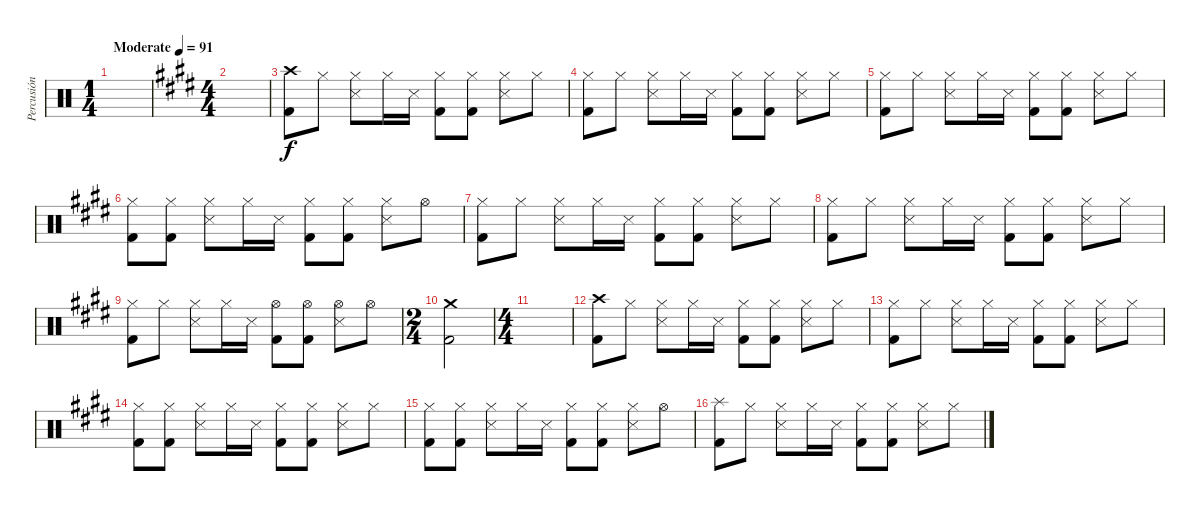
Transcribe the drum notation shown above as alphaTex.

\track ("Percusión" "Percusión") {instrument percussion}
\staff {score}
\articulation defaults
\ts (1 4)
\tempo (91 "Moderate")
\clef neutral
\ks c
|
\ts (4 4)
\ks e
|
\ks c#minor
("Crash high (hit)" "Kick (hit) 2").8 "Hi-Hat (closed)".8 ("Hi-Hat (closed)" "Metronome (hit)").8 "Hi-Hat (closed)".16 "Metronome (hit)".16 ("Hi-Hat (closed)" "Kick (hit) 2").8 ("Hi-Hat (closed)" "Kick (hit) 2").8 ("Hi-Hat (closed)" "Metronome (hit)").8 "Hi-Hat (closed)".8 |
("Hi-Hat (closed)" "Kick (hit) 2").8 "Hi-Hat (closed)".8 ("Hi-Hat (closed)" "Metronome (hit)").8 "Hi-Hat (closed)".16 "Metronome (hit)".16 ("Hi-Hat (closed)" "Kick (hit) 2").8 ("Hi-Hat (closed)" "Kick (hit) 2").8 ("Hi-Hat (closed)" "Metronome (hit)").8 "Hi-Hat (closed)".8 |
("Hi-Hat (closed)" "Kick (hit) 2").8 "Hi-Hat (closed)".8 ("Hi-Hat (closed)" "Metronome (hit)").8 "Hi-Hat (closed)".16 "Metronome (hit)".16 ("Hi-Hat (closed)" "Kick (hit) 2").8 ("Hi-Hat (closed)" "Kick (hit) 2").8 ("Hi-Hat (closed)" "Metronome (hit)").8 "Hi-Hat (closed)".8 |
\ks e
("Hi-Hat (closed)" "Kick (hit) 2").8 ("Hi-Hat (closed)" "Kick (hit) 2").8 ("Hi-Hat (closed)" "Metronome (hit)").8 "Hi-Hat (closed)".16 "Metronome (hit)".16 ("Hi-Hat (closed)" "Kick (hit) 2").8 ("Hi-Hat (closed)" "Kick (hit) 2").8 ("Hi-Hat (closed)" "Metronome (hit)").8 "Hi-Hat (open)".8 |
\ks c#minor
("Hi-Hat (closed)" "Kick (hit) 2").8 "Hi-Hat (closed)".8 ("Hi-Hat (closed)" "Metronome (hit)").8 "Hi-Hat (closed)".16 "Metronome (hit)".16 ("Hi-Hat (closed)" "Kick (hit) 2").8 ("Hi-Hat (closed)" "Kick (hit) 2").8 ("Hi-Hat (closed)" "Metronome (hit)").8 "Hi-Hat (closed)".8 |
("Hi-Hat (closed)" "Kick (hit) 2").8 "Hi-Hat (closed)".8 ("Hi-Hat (closed)" "Metronome (hit)").8 "Hi-Hat (closed)".16 "Metronome (hit)".16 ("Hi-Hat (closed)" "Kick (hit) 2").8 ("Hi-Hat (closed)" "Kick (hit) 2").8 ("Hi-Hat (closed)" "Metronome (hit)").8 "Hi-Hat (closed)".8 |
("Hi-Hat (closed)" "Kick (hit) 2").8 "Hi-Hat (closed)".8 ("Hi-Hat (closed)" "Metronome (hit)").8 "Hi-Hat (closed)".16 "Metronome (hit)".16 ("Hi-Hat (open)" "Kick (hit) 2").8 ("Hi-Hat (open)" "Kick (hit) 2").8 ("Hi-Hat (open)" "Metronome (hit)").8 "Hi-Hat (open)".8 |
\ts (2 4)
("Crash medium (hit)" "Kick (hit) 2").2{volume 0} |
\ts (4 4)
|
("Crash high (hit)" "Kick (hit) 2").8{volume 7} "Hi-Hat (closed)".8 ("Hi-Hat (closed)" "Metronome (hit)").8 "Hi-Hat (closed)".16 "Metronome (hit)".16 ("Hi-Hat (closed)" "Kick (hit) 2").8 ("Hi-Hat (closed)" "Kick (hit) 2").8 ("Hi-Hat (closed)" "Metronome (hit)").8 "Hi-Hat (closed)".8 |
("Hi-Hat (closed)" "Kick (hit) 2").8 "Hi-Hat (closed)".8 ("Hi-Hat (closed)" "Metronome (hit)").8 "Hi-Hat (closed)".16 "Metronome (hit)".16 ("Hi-Hat (closed)" "Kick (hit) 2").8 ("Hi-Hat (closed)" "Kick (hit) 2").8 ("Hi-Hat (closed)" "Metronome (hit)").8 "Hi-Hat (closed)".8 |
("Hi-Hat (closed)" "Kick (hit) 2").8 ("Hi-Hat (closed)" "Kick (hit) 2").8 ("Hi-Hat (closed)" "Metronome (hit)").8 "Hi-Hat (closed)".16 "Metronome (hit)".16 ("Hi-Hat (closed)" "Kick (hit) 2").8 ("Hi-Hat (closed)" "Kick (hit) 2").8 ("Hi-Hat (closed)" "Metronome (hit)").8 "Hi-Hat (closed)".8 |
\ks e
("Hi-Hat (closed)" "Kick (hit) 2").8 ("Hi-Hat (closed)" "Kick (hit) 2").8 ("Hi-Hat (closed)" "Metronome (hit)").8 "Hi-Hat (closed)".16 "Metronome (hit)".16 ("Hi-Hat (closed)" "Kick (hit) 2").8 ("Hi-Hat (closed)" "Kick (hit) 2").8 ("Hi-Hat (closed)" "Metronome (hit)").8 "Hi-Hat (open)".8 |
\ks c#minor
("Splash (hit)" "Kick (hit) 2").8 "Hi-Hat (closed)".8 ("Hi-Hat (closed)" "Metronome (hit)").8 "Hi-Hat (closed)".16 "Metronome (hit)".16 ("Hi-Hat (closed)" "Kick (hit) 2").8 ("Hi-Hat (closed)" "Kick (hit) 2").8 ("Hi-Hat (closed)" "Metronome (hit)").8 "Hi-Hat (closed)".8
